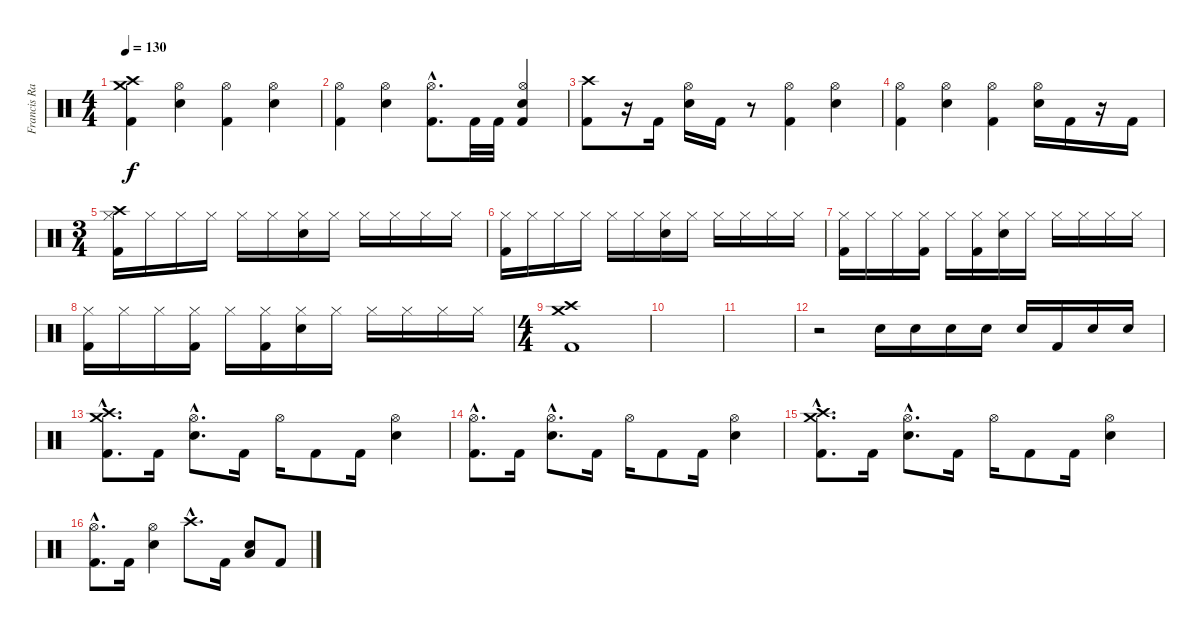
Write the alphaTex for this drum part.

\track ("Francis Ramirez" "Francis Ra") {instrument percussion}
\staff {score}
\articulation defaults
\ts (4 4)
\tempo 130
\clef neutral
\ks c
("Crash high (hit)" "Crash medium (hit)" "Kick (hit) 2").4{dy f} ("Hi-Hat (open)" "Electric Snare (hit)").4 ("Hi-Hat (open)" "Kick (hit) 2").4 ("Hi-Hat (open)" "Electric Snare (hit)").4 |
("Hi-Hat (open)" "Kick (hit) 2").4 ("Hi-Hat (open)" "Electric Snare (hit)").4 ("Hi-Hat (open)"{hac} "Kick (hit) 2"{hac}).8{d} "Kick (hit) 2".32 "Kick (hit) 2".32 ("Hi-Hat (open)" "Electric Snare (hit)" "Kick (hit) 2").4 |
("Crash high (hit)" "Kick (hit) 2").8 r.16 "Kick (hit) 2".16 ("Hi-Hat (open)" "Electric Snare (hit)").16 "Kick (hit) 2".16 r.8 ("Hi-Hat (open)" "Kick (hit) 2").4 ("Hi-Hat (open)" "Electric Snare (hit)").4 |
("Hi-Hat (open)" "Kick (hit) 2").4 ("Hi-Hat (open)" "Electric Snare (hit)").4 ("Hi-Hat (open)" "Kick (hit) 2").4 ("Hi-Hat (open)" "Electric Snare (hit)").16 "Kick (hit) 2".16 r.16 "Kick (hit) 2".16 |
\ts (3 4)
("Crash high (hit)" "Hi-Hat (closed)" "Kick (hit) 2").16 "Hi-Hat (closed)".16 "Hi-Hat (closed)".16 "Hi-Hat (closed)".16 "Hi-Hat (closed)".16 "Hi-Hat (closed)".16 ("Hi-Hat (closed)" "Electric Snare (hit)").16 "Hi-Hat (closed)".16 "Hi-Hat (closed)".16 "Hi-Hat (closed)".16 "Hi-Hat (closed)".16 "Hi-Hat (closed)".16 |
("Hi-Hat (closed)" "Kick (hit) 2").16 "Hi-Hat (closed)".16 "Hi-Hat (closed)".16 "Hi-Hat (closed)".16 "Hi-Hat (closed)".16 "Hi-Hat (closed)".16 ("Hi-Hat (closed)" "Electric Snare (hit)").16 "Hi-Hat (closed)".16 "Hi-Hat (closed)".16 "Hi-Hat (closed)".16 "Hi-Hat (closed)".16 "Hi-Hat (closed)".16 |
("Hi-Hat (closed)" "Kick (hit) 2").16 "Hi-Hat (closed)".16 "Hi-Hat (closed)".16 ("Hi-Hat (closed)" "Kick (hit) 2").16 "Hi-Hat (closed)".16 ("Hi-Hat (closed)" "Kick (hit) 2").16 ("Hi-Hat (closed)" "Electric Snare (hit)").16 "Hi-Hat (closed)".16 "Hi-Hat (closed)".16 "Hi-Hat (closed)".16 "Hi-Hat (closed)".16 "Hi-Hat (closed)".16 |
("Hi-Hat (closed)" "Kick (hit) 2").16 "Hi-Hat (closed)".16 "Hi-Hat (closed)".16 ("Hi-Hat (closed)" "Kick (hit) 2").16 "Hi-Hat (closed)".16 ("Hi-Hat (closed)" "Kick (hit) 2").16 ("Hi-Hat (closed)" "Electric Snare (hit)").16 "Hi-Hat (closed)".16 "Hi-Hat (closed)".16 "Hi-Hat (closed)".16 "Hi-Hat (closed)".16 "Hi-Hat (closed)".16 |
\ts (4 4)
("Crash high (hit)" "Crash medium (hit)" "Kick (hit) 2").1 |
|
|
r.2 "Electric Snare (hit)".16 "Electric Snare (hit)".16 "Electric Snare (hit)".16 "Electric Snare (hit)".16 "Electric Snare (hit)".16 "Kick (hit) 2".16 "Electric Snare (hit)".16 "Electric Snare (hit)".16 |
("Crash high (hit)"{hac} "Crash medium (hit)"{hac} "Kick (hit) 2"{hac}).8{d} "Kick (hit) 2".16 ("Hi-Hat (open)"{hac} "Electric Snare (hit)"{hac}).8{d} "Kick (hit) 2".16 "Hi-Hat (open)".16 "Kick (hit) 2".8 "Kick (hit) 2".16 ("Hi-Hat (open)" "Electric Snare (hit)").4 |
("Hi-Hat (open)"{hac} "Kick (hit) 2"{hac}).8{d} "Kick (hit) 2".16 ("Hi-Hat (open)"{hac} "Electric Snare (hit)"{hac}).8{d} "Kick (hit) 2".16 "Hi-Hat (open)".16 "Kick (hit) 2".8 "Kick (hit) 2".16 ("Hi-Hat (open)" "Electric Snare (hit)").4 |
("Crash high (hit)"{hac} "Crash medium (hit)"{hac} "Kick (hit) 2"{hac}).8{d} "Kick (hit) 2".16 ("Hi-Hat (open)"{hac} "Electric Snare (hit)"{hac}).8{d} "Kick (hit) 2".16 "Hi-Hat (open)".16 "Kick (hit) 2".8 "Kick (hit) 2".16 ("Hi-Hat (open)" "Electric Snare (hit)").4 |
("Hi-Hat (open)"{hac} "Kick (hit) 2"{hac}).8{d} "Kick (hit) 2".16 ("Hi-Hat (open)" "Electric Snare (hit)").4 "Crash high (hit)"{hac}.8{d} "Kick (hit) 2".16 ("Low Tom (hit)" "Electric Snare (hit)").8 "Kick (hit) 2".8
